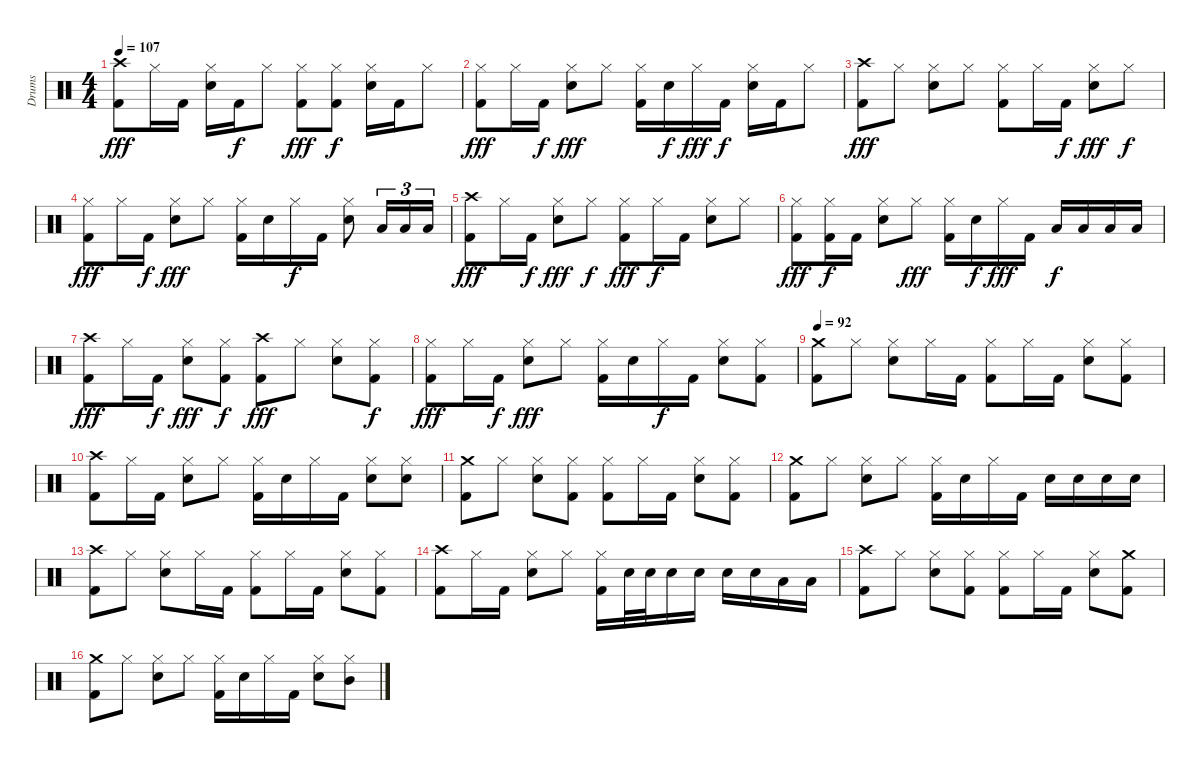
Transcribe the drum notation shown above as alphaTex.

\track ("Drums" "Drums") {instrument percussion}
\staff {score}
\articulation defaults
\ts (4 4)
\tempo 107
\clef neutral
\ks c
("Crash high (hit)" "Kick (hit) 2").8{dy fff} "Hi-Hat (closed)".16 "Kick (hit) 2".16 ("Hi-Hat (closed)" "Electric Snare (hit)").16 "Kick (hit) 2".16{dy f} "Hi-Hat (closed)".8 ("Hi-Hat (closed)" "Kick (hit) 2").8{dy fff} ("Hi-Hat (closed)" "Kick (hit) 2").8{dy f} ("Hi-Hat (closed)" "Electric Snare (hit)").16 "Kick (hit) 2".16 "Hi-Hat (closed)".8 |
("Hi-Hat (closed)" "Kick (hit) 2").8{dy fff} "Hi-Hat (closed)".16 "Kick (hit) 2".16{dy f} ("Hi-Hat (closed)" "Electric Snare (hit)").8{dy fff} "Hi-Hat (closed)".8 ("Hi-Hat (closed)" "Kick (hit) 2").16 "Electric Snare (hit)".16{dy f} "Hi-Hat (closed)".16{dy fff} "Kick (hit) 2".16{dy f} ("Hi-Hat (closed)" "Electric Snare (hit)").16 "Kick (hit) 2".16 "Hi-Hat (closed)".8 |
("Crash high (hit)" "Kick (hit) 2").8{dy fff} "Hi-Hat (closed)".8 ("Hi-Hat (closed)" "Electric Snare (hit)").8 "Hi-Hat (closed)".8 ("Hi-Hat (closed)" "Kick (hit) 2").8 "Hi-Hat (closed)".16 "Kick (hit) 2".16{dy f} ("Hi-Hat (closed)" "Electric Snare (hit)").8{dy fff} "Hi-Hat (closed)".8{dy f} |
("Hi-Hat (closed)" "Kick (hit) 2").8{dy fff} "Hi-Hat (closed)".16 "Kick (hit) 2".16{dy f} ("Hi-Hat (closed)" "Electric Snare (hit)").8{dy fff} "Hi-Hat (closed)".8 ("Hi-Hat (closed)" "Kick (hit) 2").16 "Electric Snare (hit)".16 "Hi-Hat (closed)".16{dy f} "Kick (hit) 2".16 ("Hi-Hat (closed)" "Electric Snare (hit)").8 "Low Tom (hit)".16{tu (3 2)} "Low Tom (hit)".16{tu (3 2)} "Low Tom (hit)".16{tu (3 2)} |
("Crash high (hit)" "Kick (hit) 2").8{dy fff} "Hi-Hat (closed)".16 "Kick (hit) 2".16{dy f} ("Hi-Hat (closed)" "Electric Snare (hit)").8{dy fff} "Hi-Hat (closed)".8{dy f} ("Hi-Hat (closed)" "Kick (hit) 2").8{dy fff} "Hi-Hat (closed)".16{dy f} "Kick (hit) 2".16 ("Hi-Hat (closed)" "Electric Snare (hit)").8 "Hi-Hat (closed)".8 |
("Hi-Hat (closed)" "Kick (hit) 2").8{dy fff} ("Hi-Hat (closed)" "Kick (hit) 2").16{dy f} "Kick (hit) 2".16 ("Hi-Hat (closed)" "Electric Snare (hit)").8 "Hi-Hat (closed)".8{dy fff} ("Hi-Hat (closed)" "Kick (hit) 2").16 "Electric Snare (hit)".16{dy f} "Hi-Hat (closed)".16{dy fff} "Kick (hit) 2".16 "Low Tom (hit)".16{dy f} "Low Tom (hit)".16 "Low Tom (hit)".16 "Low Tom (hit)".16 |
("Crash high (hit)" "Kick (hit) 2").8{dy fff} "Hi-Hat (closed)".16 "Kick (hit) 2".16{dy f} ("Hi-Hat (closed)" "Electric Snare (hit)").8{dy fff} ("Hi-Hat (closed)" "Kick (hit) 2").8{dy f} ("Crash high (hit)" "Kick (hit) 2").8{dy fff} "Hi-Hat (closed)".8 ("Hi-Hat (closed)" "Electric Snare (hit)").8 ("Hi-Hat (closed)" "Kick (hit) 2").8{dy f} |
("Hi-Hat (closed)" "Kick (hit) 2").8{dy fff} "Hi-Hat (closed)".16 "Kick (hit) 2".16{dy f} ("Hi-Hat (closed)" "Electric Snare (hit)").8{dy fff} "Hi-Hat (closed)".8 ("Hi-Hat (closed)" "Kick (hit) 2").16 "Electric Snare (hit)".16 "Hi-Hat (closed)".16{dy f} "Kick (hit) 2".16 ("Hi-Hat (closed)" "Electric Snare (hit)").8 ("Hi-Hat (closed)" "Kick (hit) 2").8 |
\tempo 92
("Crash medium (hit)" "Kick (hit) 2").8 "Hi-Hat (closed)".8 ("Hi-Hat (closed)" "Electric Snare (hit)").8 "Hi-Hat (closed)".16 "Kick (hit) 2".16 ("Hi-Hat (closed)" "Kick (hit) 2").8 "Hi-Hat (closed)".16 "Kick (hit) 2".16 ("Hi-Hat (closed)" "Electric Snare (hit)").8 ("Hi-Hat (closed)" "Kick (hit) 2").8 |
("Crash high (hit)" "Kick (hit) 2").8 "Hi-Hat (closed)".16 "Kick (hit) 2".16 ("Hi-Hat (closed)" "Electric Snare (hit)").8 "Hi-Hat (closed)".8 ("Hi-Hat (closed)" "Kick (hit) 2").16 "Electric Snare (hit)".16 "Hi-Hat (closed)".16 "Kick (hit) 2".16 ("Hi-Hat (closed)" "Electric Snare (hit)").8 ("Hi-Hat (closed)" "Electric Snare (hit)").8 |
("Crash medium (hit)" "Kick (hit) 2").8 "Hi-Hat (closed)".8 ("Hi-Hat (closed)" "Electric Snare (hit)").8 ("Hi-Hat (closed)" "Kick (hit) 2").8 ("Hi-Hat (closed)" "Kick (hit) 2").8 "Hi-Hat (closed)".16 "Kick (hit) 2".16 ("Hi-Hat (closed)" "Electric Snare (hit)").8 ("Hi-Hat (closed)" "Kick (hit) 2").8 |
("Crash medium (hit)" "Kick (hit) 2").8 "Hi-Hat (closed)".8 ("Hi-Hat (closed)" "Electric Snare (hit)").8 "Hi-Hat (closed)".8 ("Hi-Hat (closed)" "Kick (hit) 2").16 "Electric Snare (hit)".16 "Hi-Hat (closed)".16 "Kick (hit) 2".16 "Electric Snare (hit)".16 "Electric Snare (hit)".16 "Electric Snare (hit)".16 "Electric Snare (hit)".16 |
("Crash high (hit)" "Kick (hit) 2").8 "Hi-Hat (closed)".8 ("Hi-Hat (closed)" "Electric Snare (hit)").8 "Hi-Hat (closed)".16 "Kick (hit) 2".16 ("Hi-Hat (closed)" "Kick (hit) 2").8 "Hi-Hat (closed)".16 "Kick (hit) 2".16 ("Hi-Hat (closed)" "Electric Snare (hit)").8 ("Hi-Hat (closed)" "Kick (hit) 2").8 |
("Crash high (hit)" "Kick (hit) 2").8 "Hi-Hat (closed)".16 "Kick (hit) 2".16 ("Hi-Hat (closed)" "Electric Snare (hit)").8 "Hi-Hat (closed)".8 ("Hi-Hat (closed)" "Kick (hit) 2").16 "Electric Snare (hit)".32 "Electric Snare (hit)".32 "Electric Snare (hit)".16 "Electric Snare (hit)".16 "Electric Snare (hit)".16 "Electric Snare (hit)".16 "Low Tom (hit)".16 "Low Tom (hit)".16 |
("Crash high (hit)" "Kick (hit) 2").8 "Hi-Hat (closed)".8 ("Hi-Hat (closed)" "Electric Snare (hit)").8 ("Hi-Hat (closed)" "Kick (hit) 2").8 ("Hi-Hat (closed)" "Kick (hit) 2").8 "Hi-Hat (closed)".16 "Kick (hit) 2".16 ("Hi-Hat (closed)" "Electric Snare (hit)").8 ("Crash medium (hit)" "Kick (hit) 2").8 |
("Crash medium (hit)" "Kick (hit) 2").8 "Hi-Hat (closed)".8 ("Hi-Hat (closed)" "Electric Snare (hit)").8 "Hi-Hat (closed)".8 ("Hi-Hat (closed)" "Kick (hit) 2").16 "Electric Snare (hit)".16 "Hi-Hat (closed)".16 "Kick (hit) 2".16 ("Hi-Hat (closed)" "Electric Snare (hit)").8 ("Hi-Hat (closed)" "Mid Tom (hit)").8
